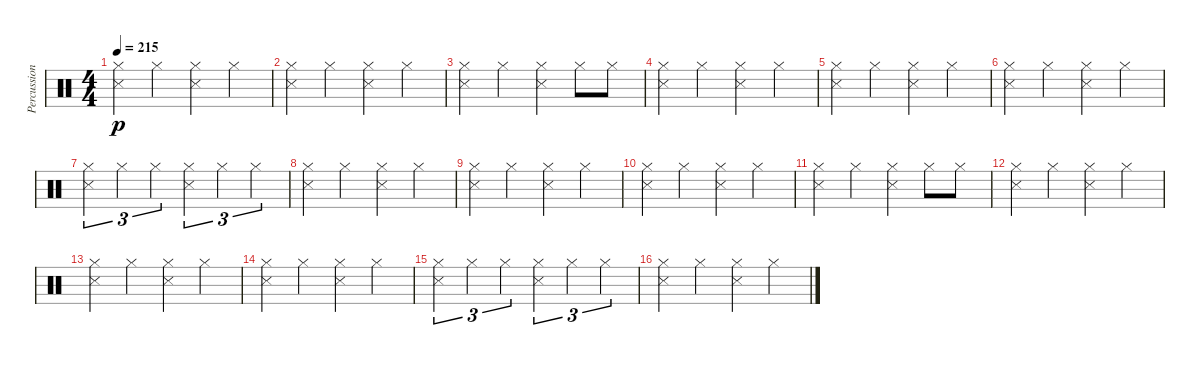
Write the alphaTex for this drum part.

\track ("Percussion" "Percussion") {instrument percussion}
\staff {score}
\articulation defaults
\ts (4 4)
\tempo 215
\clef neutral
\ks c
("Hi-Hat (closed)" "Snare (side stick) 3").4{dy p} "Hi-Hat (closed)".4 ("Hi-Hat (closed)" "Snare (side stick) 3").4 "Hi-Hat (closed)".4 |
("Hi-Hat (closed)" "Snare (side stick) 3").4 "Hi-Hat (closed)".4 ("Hi-Hat (closed)" "Snare (side stick) 3").4 "Hi-Hat (closed)".4 |
("Hi-Hat (closed)" "Snare (side stick) 3").4 "Hi-Hat (closed)".4 ("Hi-Hat (closed)" "Snare (side stick) 3").4 "Hi-Hat (closed)".8 "Hi-Hat (closed)".8 |
("Hi-Hat (closed)" "Snare (side stick) 3").4 "Hi-Hat (closed)".4 ("Hi-Hat (closed)" "Snare (side stick) 3").4 "Hi-Hat (closed)".4 |
("Hi-Hat (closed)" "Snare (side stick) 3").4 "Hi-Hat (closed)".4 ("Hi-Hat (closed)" "Snare (side stick) 3").4 "Hi-Hat (closed)".4 |
("Hi-Hat (closed)" "Snare (side stick) 3").4 "Hi-Hat (closed)".4 ("Hi-Hat (closed)" "Snare (side stick) 3").4 "Hi-Hat (closed)".4 |
("Hi-Hat (closed)" "Snare (side stick) 3").4{tu (3 2)} "Hi-Hat (closed)".4{tu (3 2)} "Hi-Hat (closed)".4{tu (3 2)} ("Hi-Hat (closed)" "Snare (side stick) 3").4{tu (3 2)} "Hi-Hat (closed)".4{tu (3 2)} "Hi-Hat (closed)".4{tu (3 2)} |
("Hi-Hat (closed)" "Snare (side stick) 3").4 "Hi-Hat (closed)".4 ("Hi-Hat (closed)" "Snare (side stick) 3").4 "Hi-Hat (closed)".4 |
("Hi-Hat (closed)" "Snare (side stick) 3").4 "Hi-Hat (closed)".4 ("Hi-Hat (closed)" "Snare (side stick) 3").4 "Hi-Hat (closed)".4 |
("Hi-Hat (closed)" "Snare (side stick) 3").4 "Hi-Hat (closed)".4 ("Hi-Hat (closed)" "Snare (side stick) 3").4 "Hi-Hat (closed)".4 |
("Hi-Hat (closed)" "Snare (side stick) 3").4 "Hi-Hat (closed)".4 ("Hi-Hat (closed)" "Snare (side stick) 3").4 "Hi-Hat (closed)".8 "Hi-Hat (closed)".8 |
("Hi-Hat (closed)" "Snare (side stick) 3").4 "Hi-Hat (closed)".4 ("Hi-Hat (closed)" "Snare (side stick) 3").4 "Hi-Hat (closed)".4 |
("Hi-Hat (closed)" "Snare (side stick) 3").4 "Hi-Hat (closed)".4 ("Hi-Hat (closed)" "Snare (side stick) 3").4 "Hi-Hat (closed)".4 |
("Hi-Hat (closed)" "Snare (side stick) 3").4 "Hi-Hat (closed)".4 ("Hi-Hat (closed)" "Snare (side stick) 3").4 "Hi-Hat (closed)".4 |
("Hi-Hat (closed)" "Snare (side stick) 3").4{tu (3 2)} "Hi-Hat (closed)".4{tu (3 2)} "Hi-Hat (closed)".4{tu (3 2)} ("Hi-Hat (closed)" "Snare (side stick) 3").4{tu (3 2)} "Hi-Hat (closed)".4{tu (3 2)} "Hi-Hat (closed)".4{tu (3 2)} |
("Hi-Hat (closed)" "Snare (side stick) 3").4 "Hi-Hat (closed)".4 ("Hi-Hat (closed)" "Snare (side stick) 3").4 "Hi-Hat (closed)".4
